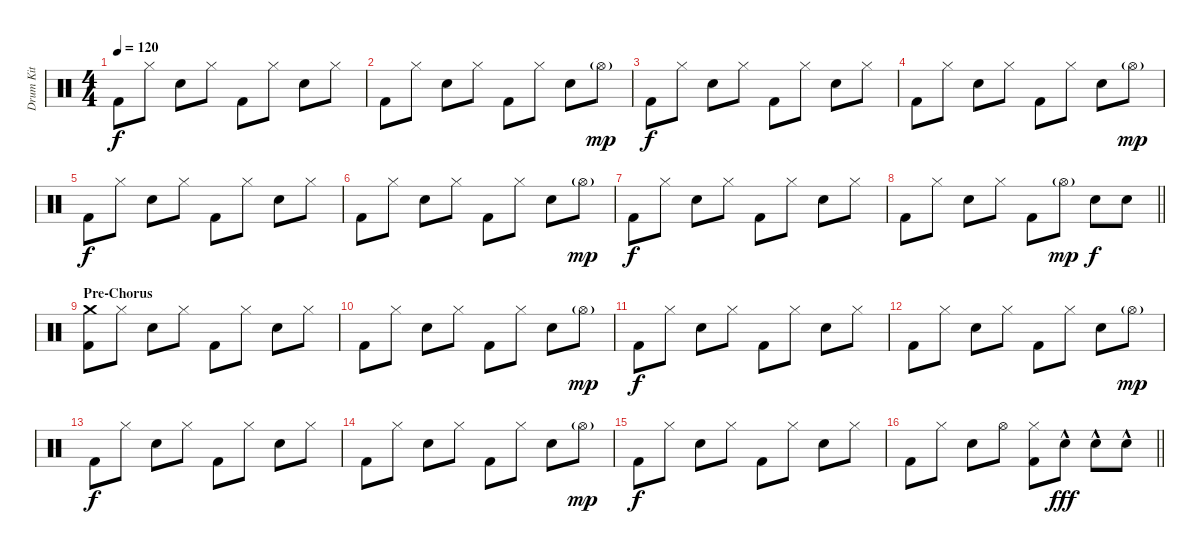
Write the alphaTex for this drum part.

\track ("Drum Kit" "Drum Kit") {instrument percussion}
\staff {score}
\articulation defaults
\ts (4 4)
\tempo 120
\clef neutral
\ks c "Kick (hit) 2".8{dy f} "Hi-Hat (closed)".8 "Electric Snare (hit)".8 "Hi-Hat (closed)".8 "Kick (hit) 2".8 "Hi-Hat (closed)".8 "Electric Snare (hit)".8 "Hi-Hat (closed)".8
|
"Kick (hit) 2".8 "Hi-Hat (closed)".8 "Electric Snare (hit)".8 "Hi-Hat (closed)".8 "Kick (hit) 2".8 "Hi-Hat (closed)".8 "Electric Snare (hit)".8 "Hi-Hat (open)"{g}.8{dy mp} |
"Kick (hit) 2".8{dy f} "Hi-Hat (closed)".8 "Electric Snare (hit)".8 "Hi-Hat (closed)".8 "Kick (hit) 2".8 "Hi-Hat (closed)".8 "Electric Snare (hit)".8 "Hi-Hat (closed)".8 |
"Kick (hit) 2".8 "Hi-Hat (closed)".8 "Electric Snare (hit)".8 "Hi-Hat (closed)".8 "Kick (hit) 2".8 "Hi-Hat (closed)".8 "Electric Snare (hit)".8 "Hi-Hat (open)"{g}.8{dy mp} |
"Kick (hit) 2".8{dy f} "Hi-Hat (closed)".8 "Electric Snare (hit)".8 "Hi-Hat (closed)".8 "Kick (hit) 2".8 "Hi-Hat (closed)".8 "Electric Snare (hit)".8 "Hi-Hat (closed)".8 |
"Kick (hit) 2".8 "Hi-Hat (closed)".8 "Electric Snare (hit)".8 "Hi-Hat (closed)".8 "Kick (hit) 2".8 "Hi-Hat (closed)".8 "Electric Snare (hit)".8 "Hi-Hat (open)"{g}.8{dy mp} |
"Kick (hit) 2".8{dy f} "Hi-Hat (closed)".8 "Electric Snare (hit)".8 "Hi-Hat (closed)".8 "Kick (hit) 2".8 "Hi-Hat (closed)".8 "Electric Snare (hit)".8 "Hi-Hat (closed)".8 |
\barLineRight lightlight "Kick (hit) 2".8 "Hi-Hat (closed)".8 "Electric Snare (hit)".8 "Hi-Hat (closed)".8 "Kick (hit) 2".8 "Hi-Hat (open)"{g}.8{dy mp} "Electric Snare (hit)".8{dy f} "Electric Snare (hit)".8
|
\section ("" "Pre-Chorus")
("Crash medium (hit)" "Kick (hit) 2").8 "Hi-Hat (closed)".8 "Electric Snare (hit)".8 "Hi-Hat (closed)".8 "Kick (hit) 2".8 "Hi-Hat (closed)".8 "Electric Snare (hit)".8 "Hi-Hat (closed)".8 |
"Kick (hit) 2".8 "Hi-Hat (closed)".8 "Electric Snare (hit)".8 "Hi-Hat (closed)".8 "Kick (hit) 2".8 "Hi-Hat (closed)".8 "Electric Snare (hit)".8 "Hi-Hat (open)"{g}.8{dy mp} |
"Kick (hit) 2".8{dy f} "Hi-Hat (closed)".8 "Electric Snare (hit)".8 "Hi-Hat (closed)".8 "Kick (hit) 2".8 "Hi-Hat (closed)".8 "Electric Snare (hit)".8 "Hi-Hat (closed)".8 |
"Kick (hit) 2".8 "Hi-Hat (closed)".8 "Electric Snare (hit)".8 "Hi-Hat (closed)".8 "Kick (hit) 2".8 "Hi-Hat (closed)".8 "Electric Snare (hit)".8 "Hi-Hat (open)"{g}.8{dy mp} |
"Kick (hit) 2".8{dy f} "Hi-Hat (closed)".8 "Electric Snare (hit)".8 "Hi-Hat (closed)".8 "Kick (hit) 2".8 "Hi-Hat (closed)".8 "Electric Snare (hit)".8 "Hi-Hat (closed)".8 |
"Kick (hit) 2".8 "Hi-Hat (closed)".8 "Electric Snare (hit)".8 "Hi-Hat (closed)".8 "Kick (hit) 2".8 "Hi-Hat (closed)".8 "Electric Snare (hit)".8 "Hi-Hat (open)"{g}.8{dy mp} |
"Kick (hit) 2".8{dy f} "Hi-Hat (closed)".8 "Electric Snare (hit)".8 "Hi-Hat (closed)".8 "Kick (hit) 2".8 "Hi-Hat (closed)".8 "Electric Snare (hit)".8 "Hi-Hat (closed)".8 |
\barLineRight lightlight "Kick (hit) 2".8 "Hi-Hat (closed)".8 "Electric Snare (hit)".8 "Hi-Hat (open)".8
("Hi-Hat (closed)" "Kick (hit) 2").8 "Electric Snare (hit)"{hac}.8{dy fff} "Electric Snare (hit)"{hac}.8 "Electric Snare (hit)"{hac}.8
